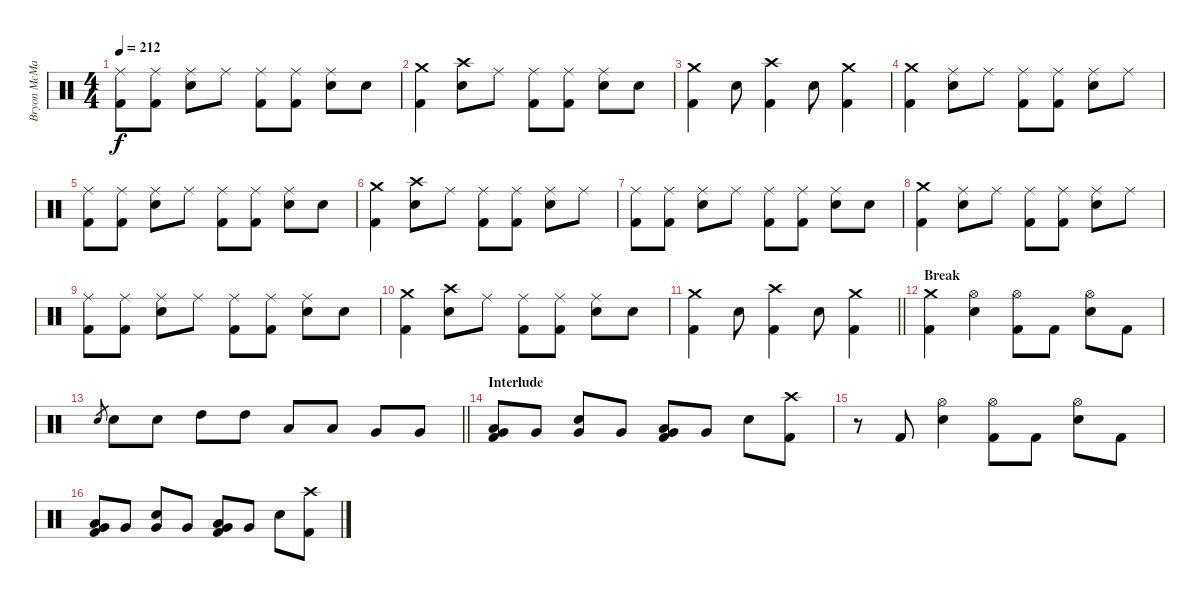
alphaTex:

\track ("Bryon McMackin - Drums" "Bryon McMa") {instrument percussion}
\staff {score}
\articulation defaults
\ts (4 4)
\tempo 212
\clef neutral
\ks c
("Ride (middle)" "Kick (hit) 2").8{dy f} ("Ride (middle)" "Kick (hit) 2").8 ("Ride (middle)" "Electric Snare (hit)").8 "Ride (middle)".8 ("Ride (middle)" "Kick (hit) 2").8 ("Ride (middle)" "Kick (hit) 2").8 ("Ride (middle)" "Electric Snare (hit)").8 "Electric Snare (hit)".8 |
("Crash medium (hit)" "Kick (hit) 2").4 ("Crash high (hit)" "Electric Snare (hit)").8 "Ride (middle)".8 ("Ride (middle)" "Kick (hit) 2").8 ("Ride (middle)" "Kick (hit) 2").8 ("Ride (middle)" "Electric Snare (hit)").8 "Electric Snare (hit)".8 |
("Crash medium (hit)" "Kick (hit) 2").4 "Electric Snare (hit)".8 ("Crash high (hit)" "Kick (hit) 2").4 "Electric Snare (hit)".8 ("Crash medium (hit)" "Kick (hit) 2").4 |
("Crash medium (hit)" "Kick (hit) 2").4 ("Ride (middle)" "Electric Snare (hit)").8 "Ride (middle)".8 ("Ride (middle)" "Kick (hit) 2").8 ("Ride (middle)" "Kick (hit) 2").8 ("Ride (middle)" "Electric Snare (hit)").8 "Ride (middle)".8 |
("Ride (middle)" "Kick (hit) 2").8 ("Ride (middle)" "Kick (hit) 2").8 ("Ride (middle)" "Electric Snare (hit)").8 "Ride (middle)".8 ("Ride (middle)" "Kick (hit) 2").8 ("Ride (middle)" "Kick (hit) 2").8 ("Ride (middle)" "Electric Snare (hit)").8 "Electric Snare (hit)".8 |
("Crash medium (hit)" "Kick (hit) 2").4 ("Crash high (hit)" "Electric Snare (hit)").8 "Ride (middle)".8 ("Ride (middle)" "Kick (hit) 2").8 ("Ride (middle)" "Kick (hit) 2").8 ("Ride (middle)" "Electric Snare (hit)").8 "Ride (middle)".8 |
("Ride (middle)" "Kick (hit) 2").8 ("Ride (middle)" "Kick (hit) 2").8 ("Ride (middle)" "Electric Snare (hit)").8 "Ride (middle)".8 ("Ride (middle)" "Kick (hit) 2").8 ("Ride (middle)" "Kick (hit) 2").8 ("Ride (middle)" "Electric Snare (hit)").8 "Electric Snare (hit)".8 |
("Crash medium (hit)" "Kick (hit) 2").4 ("Ride (middle)" "Electric Snare (hit)").8 "Ride (middle)".8 ("Ride (middle)" "Kick (hit) 2").8 ("Ride (middle)" "Kick (hit) 2").8 ("Ride (middle)" "Electric Snare (hit)").8 "Ride (middle)".8 |
("Ride (middle)" "Kick (hit) 2").8 ("Ride (middle)" "Kick (hit) 2").8 ("Ride (middle)" "Electric Snare (hit)").8 "Ride (middle)".8 ("Ride (middle)" "Kick (hit) 2").8 ("Ride (middle)" "Kick (hit) 2").8 ("Ride (middle)" "Electric Snare (hit)").8 "Electric Snare (hit)".8 |
("Crash medium (hit)" "Kick (hit) 2").4 ("Crash high (hit)" "Electric Snare (hit)").8 "Ride (middle)".8 ("Ride (middle)" "Kick (hit) 2").8 ("Ride (middle)" "Kick (hit) 2").8 ("Ride (middle)" "Electric Snare (hit)").8 "Electric Snare (hit)".8 |
\barLineRight lightlight
("Crash medium (hit)" "Kick (hit) 2").4 "Electric Snare (hit)".8 ("Crash high (hit)" "Kick (hit) 2").4 "Electric Snare (hit)".8 ("Crash medium (hit)" "Kick (hit) 2").4 |
\section ("" "Break")
("Crash medium (hit)" "Kick (hit) 2").4 ("Hi-Hat (open)" "Electric Snare (hit)").4 ("Hi-Hat (open)" "Kick (hit) 2").8 "Kick (hit) 2".8 ("Hi-Hat (open)" "Electric Snare (hit)").8 "Kick (hit) 2".8 |
\barLineRight lightlight "Electric Snare (hit)".8{gr} "Electric Snare (hit)".8 "Electric Snare (hit)".8 "High Tom (hit)".8 "High Tom (hit)".8 "Low Tom (hit)".8 "Low Tom (hit)".8 "Very Low Tom (hit)".8 "Very Low Tom (hit)".8
|
\section ("" "Interlude")
("Low Tom (hit)" "Very Low Tom (hit)" "Kick (hit) 2").8 "Very Low Tom (hit)".8 ("Electric Snare (hit)" "Very Low Tom (hit)").8 "Very Low Tom (hit)".8 ("Low Tom (hit)" "Very Low Tom (hit)" "Kick (hit) 2").8 "Very Low Tom (hit)".8 "Electric Snare (hit)".8 ("Crash high (hit)" "Kick (hit) 2").8 |
r.8 "Kick (hit) 2".8 ("Hi-Hat (open)" "Electric Snare (hit)").4 ("Hi-Hat (open)" "Kick (hit) 2").8 "Kick (hit) 2".8 ("Hi-Hat (open)" "Electric Snare (hit)").8 "Kick (hit) 2".8 |
("Low Tom (hit)" "Very Low Tom (hit)" "Kick (hit) 2").8 "Very Low Tom (hit)".8 ("Electric Snare (hit)" "Very Low Tom (hit)").8 "Very Low Tom (hit)".8 ("Low Tom (hit)" "Very Low Tom (hit)" "Kick (hit) 2").8 "Very Low Tom (hit)".8 "Electric Snare (hit)".8 ("Crash high (hit)" "Kick (hit) 2").8
